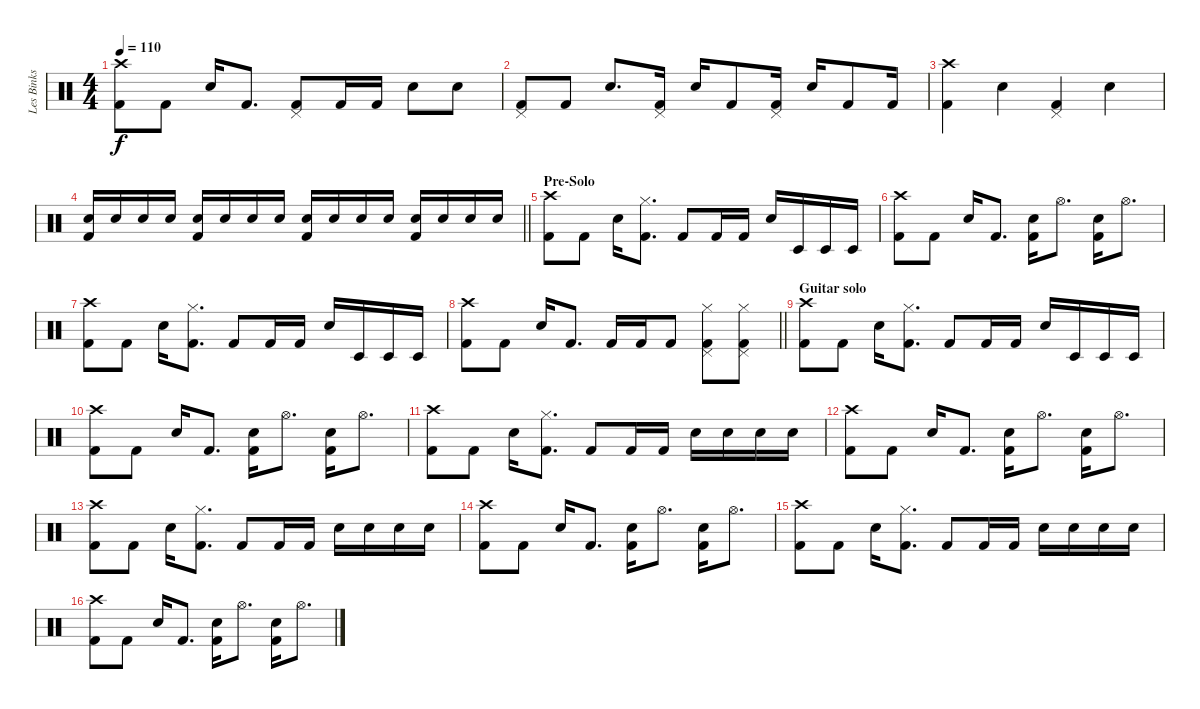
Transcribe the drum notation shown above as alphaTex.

\track ("Les Binks" "Les Binks") {instrument percussion}
\staff {score}
\articulation defaults
\ts (4 4)
\tempo 110
\clef neutral
\ks c
("Crash high (hit)" "Kick (hit) 2").8{dy f} "Kick (hit) 2".8 "Electric Snare (hit)".16 "Kick (hit) 2".8{d} ("Pedal Hi-Hat (hit)" "Kick (hit) 2").8 "Kick (hit) 2".16 "Kick (hit) 2".16 "Electric Snare (hit)".8 "Electric Snare (hit)".8 |
("Pedal Hi-Hat (hit)" "Kick (hit) 2").8 "Kick (hit) 2".8 "Electric Snare (hit)".8{d} ("Pedal Hi-Hat (hit)" "Kick (hit) 2").16 "Electric Snare (hit)".16 "Kick (hit) 2".8 ("Pedal Hi-Hat (hit)" "Kick (hit) 2").16 "Electric Snare (hit)".16 "Kick (hit) 2".8 "Kick (hit) 2".16 |
("Crash high (hit)" "Kick (hit) 2").4 "Electric Snare (hit)".4 ("Pedal Hi-Hat (hit)" "Kick (hit) 2").4 "Electric Snare (hit)".4 |
\barLineRight lightlight
("Electric Snare (hit)" "Kick (hit) 2").16 "Electric Snare (hit)".16 "Electric Snare (hit)".16 "Electric Snare (hit)".16 ("Electric Snare (hit)" "Kick (hit) 2").16 "Electric Snare (hit)".16 "Electric Snare (hit)".16 "Electric Snare (hit)".16 ("Electric Snare (hit)" "Kick (hit) 2").16 "Electric Snare (hit)".16 "Electric Snare (hit)".16 "Electric Snare (hit)".16 ("Electric Snare (hit)" "Kick (hit) 2").16 "Electric Snare (hit)".16 "Electric Snare (hit)".16 "Electric Snare (hit)".16 |
\section ("" "Pre-Solo")
("Crash high (hit)" "Kick (hit) 2").8 "Kick (hit) 2".8 "Electric Snare (hit)".16 ("Hi-Hat (closed)" "Kick (hit) 2").8{d} "Kick (hit) 2".8 "Kick (hit) 2".16 "Kick (hit) 2".16 "Electric Snare (hit)".16 "Timbale low (hit)".16 "Timbale low (hit)".16 "Timbale low (hit)".16 |
("Crash high (hit)" "Kick (hit) 2").8 "Kick (hit) 2".8 "Electric Snare (hit)".16 "Kick (hit) 2".8{d} ("Electric Snare (hit)" "Kick (hit) 2").16 "Hi-Hat (open)".8{d} ("Electric Snare (hit)" "Kick (hit) 2").16 "Hi-Hat (open)".8{d} |
("Crash high (hit)" "Kick (hit) 2").8 "Kick (hit) 2".8 "Electric Snare (hit)".16 ("Hi-Hat (closed)" "Kick (hit) 2").8{d} "Kick (hit) 2".8 "Kick (hit) 2".16 "Kick (hit) 2".16 "Electric Snare (hit)".16 "Timbale low (hit)".16 "Timbale low (hit)".16 "Timbale low (hit)".16 |
\barLineRight lightlight
("Crash high (hit)" "Kick (hit) 2").8 "Kick (hit) 2".8 "Electric Snare (hit)".16 "Kick (hit) 2".8{d} "Kick (hit) 2".16 "Kick (hit) 2".16 "Kick (hit) 2".8 ("Hi-Hat (closed)" "Pedal Hi-Hat (hit)" "Kick (hit) 2").8 ("Hi-Hat (closed)" "Pedal Hi-Hat (hit)" "Kick (hit) 2").8 |
\section ("" "Guitar solo")
("Crash high (hit)" "Kick (hit) 2").8 "Kick (hit) 2".8 "Electric Snare (hit)".16 ("Hi-Hat (closed)" "Kick (hit) 2").8{d} "Kick (hit) 2".8 "Kick (hit) 2".16 "Kick (hit) 2".16 "Electric Snare (hit)".16 "Timbale low (hit)".16 "Timbale low (hit)".16 "Timbale low (hit)".16 |
("Crash high (hit)" "Kick (hit) 2").8 "Kick (hit) 2".8 "Electric Snare (hit)".16 "Kick (hit) 2".8{d} ("Electric Snare (hit)" "Kick (hit) 2").16 "Hi-Hat (open)".8{d} ("Electric Snare (hit)" "Kick (hit) 2").16 "Hi-Hat (open)".8{d} |
("Crash high (hit)" "Kick (hit) 2").8 "Kick (hit) 2".8 "Electric Snare (hit)".16 ("Hi-Hat (closed)" "Kick (hit) 2").8{d} "Kick (hit) 2".8 "Kick (hit) 2".16 "Kick (hit) 2".16 "Electric Snare (hit)".16 "Electric Snare (hit)".16 "Electric Snare (hit)".16 "Electric Snare (hit)".16 |
("Crash high (hit)" "Kick (hit) 2").8 "Kick (hit) 2".8 "Electric Snare (hit)".16 "Kick (hit) 2".8{d} ("Electric Snare (hit)" "Kick (hit) 2").16 "Hi-Hat (open)".8{d} ("Electric Snare (hit)" "Kick (hit) 2").16 "Hi-Hat (open)".8{d} |
("Crash high (hit)" "Kick (hit) 2").8 "Kick (hit) 2".8 "Electric Snare (hit)".16 ("Hi-Hat (closed)" "Kick (hit) 2").8{d} "Kick (hit) 2".8 "Kick (hit) 2".16 "Kick (hit) 2".16 "Electric Snare (hit)".16 "Electric Snare (hit)".16 "Electric Snare (hit)".16 "Electric Snare (hit)".16 |
("Crash high (hit)" "Kick (hit) 2").8 "Kick (hit) 2".8 "Electric Snare (hit)".16 "Kick (hit) 2".8{d} ("Electric Snare (hit)" "Kick (hit) 2").16 "Hi-Hat (open)".8{d} ("Electric Snare (hit)" "Kick (hit) 2").16 "Hi-Hat (open)".8{d} |
("Crash high (hit)" "Kick (hit) 2").8 "Kick (hit) 2".8 "Electric Snare (hit)".16 ("Hi-Hat (closed)" "Kick (hit) 2").8{d} "Kick (hit) 2".8 "Kick (hit) 2".16 "Kick (hit) 2".16 "Electric Snare (hit)".16 "Electric Snare (hit)".16 "Electric Snare (hit)".16 "Electric Snare (hit)".16 |
("Crash high (hit)" "Kick (hit) 2").8 "Kick (hit) 2".8 "Electric Snare (hit)".16 "Kick (hit) 2".8{d} ("Electric Snare (hit)" "Kick (hit) 2").16 "Hi-Hat (open)".8{d} ("Electric Snare (hit)" "Kick (hit) 2").16 "Hi-Hat (open)".8{d}
